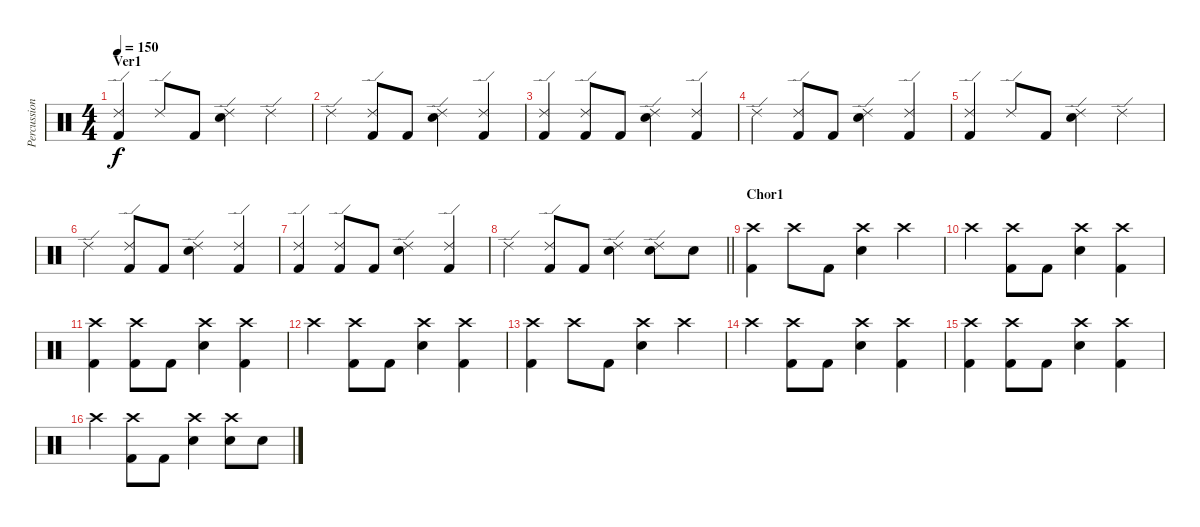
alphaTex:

\track ("Percussion" "Percussion") {instrument percussion}
\staff {score}
\articulation defaults
\ts (4 4)
\section ("" "Ver1")
\tempo 150
\clef neutral
\ks c
("Ride (edge) 2" "Kick (hit) 2").4{dy f} "Ride (edge) 2".8 "Kick (hit) 2".8 ("Ride (edge) 2" "Snare (hit) 2").4 "Ride (edge) 2".4 |
"Ride (edge) 2".4 ("Ride (edge) 2" "Kick (hit) 2").8 "Kick (hit) 2".8 ("Ride (edge) 2" "Snare (hit) 2").4 ("Ride (edge) 2" "Kick (hit) 2").4 |
("Ride (edge) 2" "Kick (hit) 2").4 ("Ride (edge) 2" "Kick (hit) 2").8 "Kick (hit) 2".8 ("Ride (edge) 2" "Snare (hit) 2").4 ("Ride (edge) 2" "Kick (hit) 2").4 |
"Ride (edge) 2".4 ("Ride (edge) 2" "Kick (hit) 2").8 "Kick (hit) 2".8 ("Ride (edge) 2" "Snare (hit) 2").4 ("Ride (edge) 2" "Kick (hit) 2").4 |
("Ride (edge) 2" "Kick (hit) 2").4 "Ride (edge) 2".8 "Kick (hit) 2".8 ("Ride (edge) 2" "Snare (hit) 2").4 "Ride (edge) 2".4 |
"Ride (edge) 2".4 ("Ride (edge) 2" "Kick (hit) 2").8 "Kick (hit) 2".8 ("Ride (edge) 2" "Snare (hit) 2").4 ("Ride (edge) 2" "Kick (hit) 2").4 |
("Ride (edge) 2" "Kick (hit) 2").4 ("Ride (edge) 2" "Kick (hit) 2").8 "Kick (hit) 2".8 ("Ride (edge) 2" "Snare (hit) 2").4 ("Ride (edge) 2" "Kick (hit) 2").4 |
\barLineRight lightlight "Ride (edge) 2".4
("Ride (edge) 2" "Kick (hit) 2").8 "Kick (hit) 2".8 ("Ride (edge) 2" "Snare (hit) 2").4 ("Ride (edge) 2" "Snare (hit) 2").8 "Snare (hit) 2".8 |
\section ("" "Chor1")
("Crash high (hit)" "Kick (hit) 2").4 "Crash high (hit)".8 "Kick (hit) 2".8 ("Crash high (hit)" "Snare (hit) 2").4 "Crash high (hit)".4 |
"Crash high (hit)".4 ("Crash high (hit)" "Kick (hit) 2").8 "Kick (hit) 2".8 ("Crash high (hit)" "Snare (hit) 2").4 ("Crash high (hit)" "Kick (hit) 2").4 |
("Crash high (hit)" "Kick (hit) 2").4 ("Crash high (hit)" "Kick (hit) 2").8 "Kick (hit) 2".8 ("Crash high (hit)" "Snare (hit) 2").4 ("Crash high (hit)" "Kick (hit) 2").4 |
"Crash high (hit)".4 ("Crash high (hit)" "Kick (hit) 2").8 "Kick (hit) 2".8 ("Crash high (hit)" "Snare (hit) 2").4 ("Crash high (hit)" "Kick (hit) 2").4 |
("Crash high (hit)" "Kick (hit) 2").4 "Crash high (hit)".8 "Kick (hit) 2".8 ("Crash high (hit)" "Snare (hit) 2").4 "Crash high (hit)".4 |
"Crash high (hit)".4 ("Crash high (hit)" "Kick (hit) 2").8 "Kick (hit) 2".8 ("Crash high (hit)" "Snare (hit) 2").4 ("Crash high (hit)" "Kick (hit) 2").4 |
("Crash high (hit)" "Kick (hit) 2").4 ("Crash high (hit)" "Kick (hit) 2").8 "Kick (hit) 2".8 ("Crash high (hit)" "Snare (hit) 2").4 ("Crash high (hit)" "Kick (hit) 2").4 |
"Crash high (hit)".4 ("Crash high (hit)" "Kick (hit) 2").8 "Kick (hit) 2".8 ("Crash high (hit)" "Snare (hit) 2").4 ("Crash high (hit)" "Snare (hit) 2").8 "Snare (hit) 2".8
